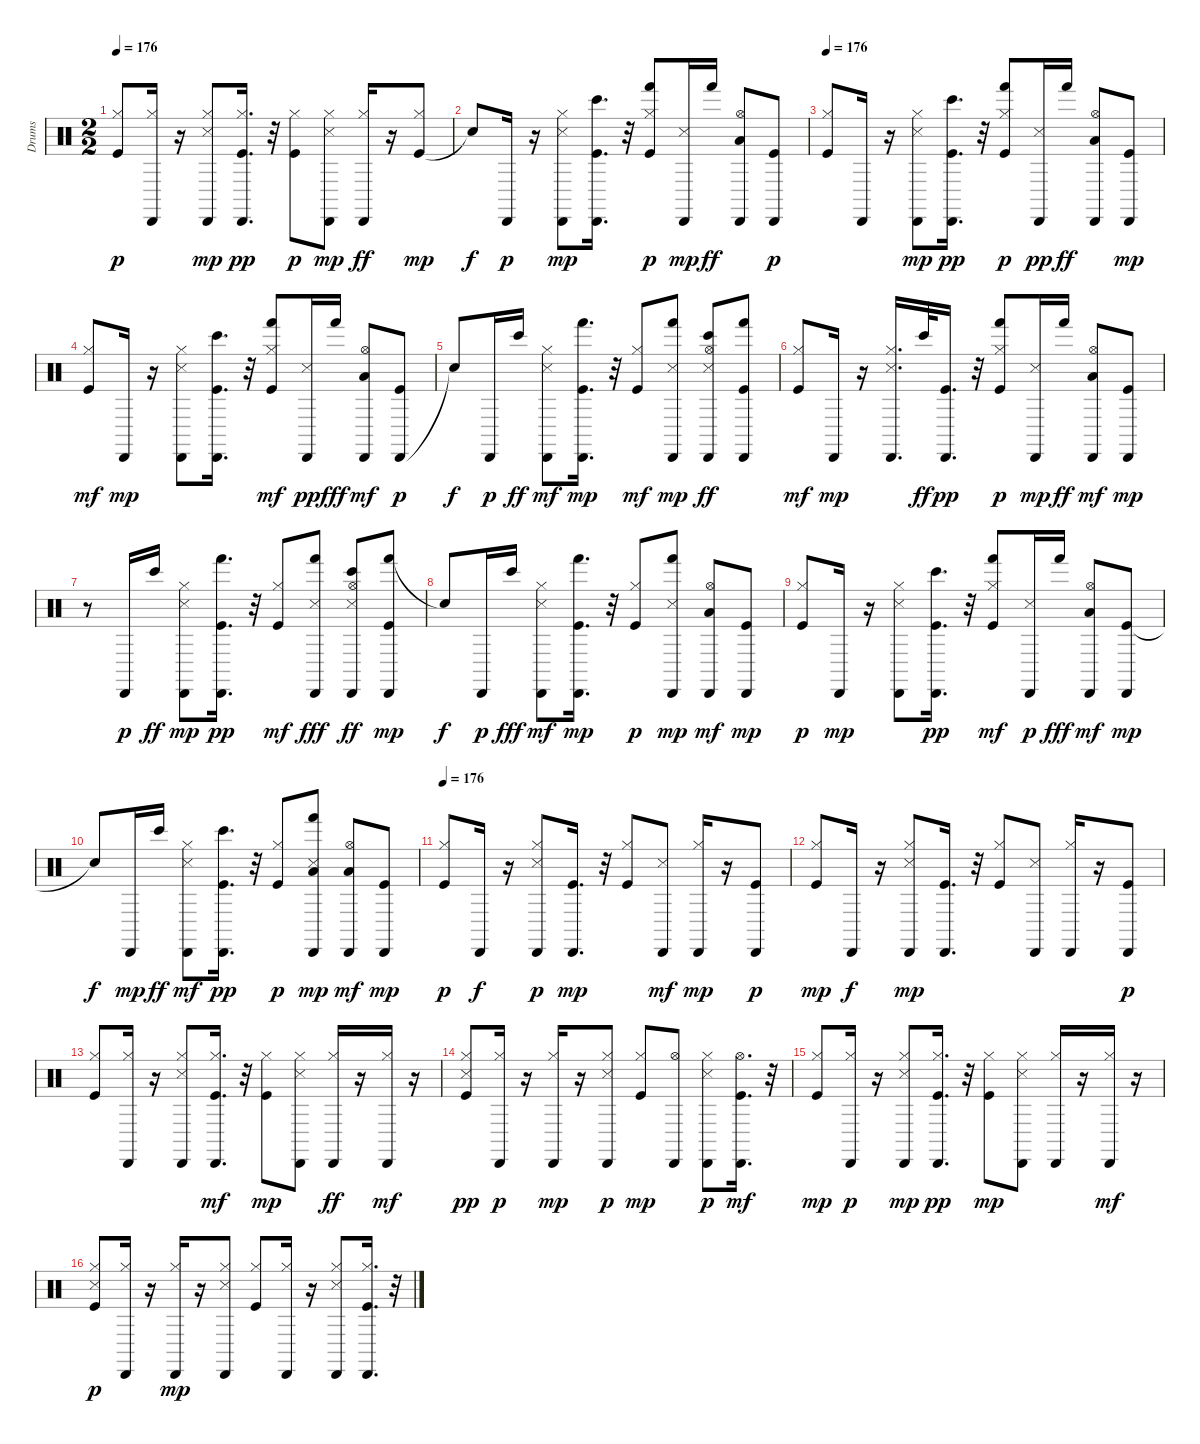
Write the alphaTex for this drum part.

\track ("Drums     " "Drums     ") {instrument percussion}
\staff {score}
\articulation defaults
\ts (2 2)
\tempo 176
\clef neutral
\ks c
("Hi-Hat (closed)" "Kick (hit)").8{dy p} ("Hi-Hat (closed)" "Cabasa (hit)").16 r.16 ("Hi-Hat (closed)" "Snare (side stick) 3" "Cabasa (hit)").8{dy mp} ("Hi-Hat (closed)" "Kick (hit)" "Cabasa (hit)").16{d dy pp} r.32 ("Hi-Hat (closed)" "Kick (hit)").8{dy p} ("Cabasa (hit)" "Hi-Hat (closed)" "Snare (side stick) 3").8{dy mp} ("Hi-Hat (closed)" "Cabasa (hit)").16{dy ff} r.16 ("Kick (hit)" "Hi-Hat (closed)").8{dy mp} |
"Snare (hit)"{t}.8{dy f} "Cabasa (hit)".16{dy p} r.16 ("Cabasa (hit)" "Hi-Hat (closed)" "Snare (side stick) 3").8{dy mp} ("Bongo High (hit)" "Kick (hit)" "Cabasa (hit)").16{d} r.32 ("Hand (hit)" "Hi-Hat (closed)" "Kick (hit)").8{dy p} ("Cabasa (hit)" "Snare (side stick) 3").16{dy mp} "Hand (hit)".16{dy ff} ("Low Floor Tom (hit)" "Cabasa (hit)" "Hi-Hat (open)").8 ("Cabasa (hit)" "Kick (hit)").8{dy p} |
\tempo 176
("Hi-Hat (closed)" "Kick (hit)").8 "Cabasa (hit)".16 r.16 ("Hi-Hat (closed)" "Cabasa (hit)" "Snare (side stick) 3").8{dy mp} ("Bongo High (hit)" "Cabasa (hit)" "Kick (hit)").16{d dy pp} r.32 ("Hand (hit)" "Hi-Hat (closed)" "Kick (hit)").8{dy p} ("Snare (side stick) 3" "Cabasa (hit)").16{dy pp} "Hand (hit)".16{dy ff} ("Cabasa (hit)" "Low Floor Tom (hit)" "Hi-Hat (open)").8 ("Kick (hit)" "Cabasa (hit)").8{dy mp} |
("Kick (hit)" "Hi-Hat (closed)").8{dy mf} "Cabasa (hit)".16{dy mp} r.16 ("Snare (side stick) 3" "Hi-Hat (closed)" "Cabasa (hit)").8 ("Bongo High (hit)" "Kick (hit)" "Cabasa (hit)").16{d} r.32 ("Hand (hit)" "Kick (hit)" "Hi-Hat (closed)").8{dy mf} ("Snare (side stick) 3" "Cabasa (hit)").16{dy pp} "Hand (hit)".16{dy fff} ("Hi-Hat (open)" "Low Floor Tom (hit)" "Cabasa (hit)").8{dy mf} ("Cabasa (hit)" "Kick (hit)").8{dy p} |
"Snare (hit)"{t}.8{dy f} "Cabasa (hit)".16{dy p} "Bongo High (hit)".16{dy ff} ("Snare (side stick) 3" "Hi-Hat (closed)" "Cabasa (hit)").8{dy mf} ("Hand (hit)" "Kick (hit)" "Cabasa (hit)").16{d dy mp} r.32 ("Kick (hit)" "Hi-Hat (closed)").8{dy mf} ("Hand (hit)" "Cabasa (hit)" "Snare (side stick) 3").8{dy mp} ("Cabasa (hit)" "Hi-Hat (open)" "Snare (side stick) 3" "Bongo High (hit)").8{dy ff} ("Kick (hit)" "Cabasa (hit)" "Hand (hit)").8 |
("Kick (hit)" "Hi-Hat (closed)").8{dy mf} "Cabasa (hit)".16{dy mp} r.16 ("Cabasa (hit)" "Hi-Hat (closed)" "Snare (side stick) 3").16{d} "Bongo High (hit)".32{dy ff} ("Cabasa (hit)" "Kick (hit)").16{d dy pp} r.32 ("Hand (hit)" "Hi-Hat (closed)" "Kick (hit)").8{dy p} ("Cabasa (hit)" "Snare (side stick) 3").16{dy mp} "Hand (hit)".16{dy ff} ("Low Floor Tom (hit)" "Hi-Hat (open)" "Cabasa (hit)").8{dy mf} ("Kick (hit)" "Cabasa (hit)").8{dy mp} |
r.8 "Cabasa (hit)".16{dy p} "Bongo High (hit)".16{dy ff} ("Snare (side stick) 3" "Hi-Hat (closed)" "Cabasa (hit)").8{dy mp} ("Hand (hit)" "Cabasa (hit)" "Kick (hit)").16{d dy pp} r.32 ("Kick (hit)" "Hi-Hat (closed)").8{dy mf} ("Cabasa (hit)" "Snare (side stick) 3" "Hand (hit)").8{dy fff} ("Cabasa (hit)" "Hi-Hat (open)" "Snare (side stick) 3" "Bongo High (hit)").8{dy ff} ("Hand (hit)" "Kick (hit)" "Cabasa (hit)").8{dy mp} |
"Snare (hit)"{t}.8{dy f} "Cabasa (hit)".16{dy p} "Bongo High (hit)".16{dy fff} ("Snare (side stick) 3" "Cabasa (hit)" "Hi-Hat (closed)").8{dy mf} ("Hand (hit)" "Kick (hit)" "Cabasa (hit)").16{d dy mp} r.32 ("Hi-Hat (closed)" "Kick (hit)").8{dy p} ("Cabasa (hit)" "Hand (hit)" "Snare (side stick) 3").8{dy mp} ("Low Floor Tom (hit)" "Cabasa (hit)" "Hi-Hat (open)").8{dy mf} ("Kick (hit)" "Cabasa (hit)").8{dy mp} |
("Hi-Hat (closed)" "Kick (hit)").8{dy p} "Cabasa (hit)".16{dy mp} r.16 ("Cabasa (hit)" "Hi-Hat (closed)" "Snare (side stick) 3").8 ("Bongo High (hit)" "Cabasa (hit)" "Kick (hit)").16{d dy pp} r.32 ("Hand (hit)" "Kick (hit)" "Hi-Hat (closed)").8{dy mf} ("Snare (side stick) 3" "Cabasa (hit)").16{dy p} "Hand (hit)".16{dy fff} ("Low Floor Tom (hit)" "Hi-Hat (open)" "Cabasa (hit)").8{dy mf} ("Kick (hit)" "Cabasa (hit)").8{dy mp} |
"Snare (hit)"{t}.8{dy f} "Cabasa (hit)".16{dy mp} "Bongo High (hit)".16{dy ff} ("Cabasa (hit)" "Snare (side stick) 3" "Hi-Hat (closed)").8{dy mf} ("Bongo High (hit)" "Cabasa (hit)" "Kick (hit)").16{d dy pp} r.32 ("Hi-Hat (closed)" "Kick (hit)").8{dy p} ("Cabasa (hit)" "Hand (hit)" "Low Tom (hit)" "Snare (side stick) 3").8{dy mp} ("Hi-Hat (open)" "Low Floor Tom (hit)" "Cabasa (hit)").8{dy mf} ("Kick (hit)" "Cabasa (hit)").8{dy mp} |
\tempo 176
("Hi-Hat (closed)" "Kick (hit)").8{dy p} "Cabasa (hit)".16{dy f} r.16 ("Snare (side stick) 3" "Cabasa (hit)" "Hi-Hat (closed)").8{dy p} ("Kick (hit)" "Cabasa (hit)").16{d dy mp} r.32 ("Kick (hit)" "Hi-Hat (closed)").8 ("Snare (side stick) 3" "Cabasa (hit)").8{dy mf} ("Cabasa (hit)" "Hi-Hat (closed)").16{dy mp} r.16 ("Cabasa (hit)" "Kick (hit)").8{dy p} |
("Kick (hit)" "Hi-Hat (closed)").8{dy mp} "Cabasa (hit)".16{dy f} r.16 ("Hi-Hat (closed)" "Snare (side stick) 3" "Cabasa (hit)").8{dy mp} ("Kick (hit)" "Cabasa (hit)").16{d} r.32 ("Kick (hit)" "Hi-Hat (closed)").8 ("Cabasa (hit)" "Snare (side stick) 3").8 ("Cabasa (hit)" "Hi-Hat (closed)").16 r.16 ("Kick (hit)" "Cabasa (hit)").8{dy p} |
("Hi-Hat (closed)" "Kick (hit)").8 ("Cabasa (hit)" "Hi-Hat (closed)").16 r.16 ("Snare (side stick) 3" "Cabasa (hit)" "Hi-Hat (closed)").8 ("Kick (hit)" "Cabasa (hit)" "Hi-Hat (closed)").16{d dy mf} r.32 ("Kick (hit)" "Hi-Hat (closed)").8{dy mp} ("Snare (side stick) 3" "Cabasa (hit)" "Hi-Hat (closed)").8 ("Hi-Hat (closed)" "Cabasa (hit)").16{dy ff} r.16 ("Hi-Hat (closed)" "Cabasa (hit)").16{dy mf} r.16 |
("Hi-Hat (closed)" "Snare (side stick) 3" "Kick (hit)").8{dy pp} ("Hi-Hat (closed)" "Cabasa (hit)").16{dy p} r.16 ("Cabasa (hit)" "Hi-Hat (closed)").16{dy mp} r.16 ("Snare (side stick) 3" "Hi-Hat (closed)" "Cabasa (hit)").8{dy p} ("Kick (hit)" "Hi-Hat (closed)").8{dy mp} ("Hi-Hat (open)" "Cabasa (hit)").8 ("Cabasa (hit)" "Snare (side stick) 3" "Hi-Hat (closed)").8{dy p} ("Hi-Hat (open)" "Kick (hit)" "Cabasa (hit)").16{d dy mf} r.32 |
("Kick (hit)" "Hi-Hat (closed)").8{dy mp} ("Hi-Hat (closed)" "Cabasa (hit)").16{dy p} r.16 ("Cabasa (hit)" "Hi-Hat (closed)" "Snare (side stick) 3").8{dy mp} ("Hi-Hat (closed)" "Cabasa (hit)" "Kick (hit)").16{d dy pp} r.32 ("Kick (hit)" "Hi-Hat (closed)").8{dy mp} ("Snare (side stick) 3" "Cabasa (hit)" "Hi-Hat (closed)").8 ("Hi-Hat (closed)" "Cabasa (hit)").16 r.16 ("Hi-Hat (closed)" "Cabasa (hit)").16{dy mf} r.16 |
("Snare (side stick) 3" "Kick (hit)" "Hi-Hat (closed)").8{dy p} ("Hi-Hat (closed)" "Cabasa (hit)").16 r.16 ("Hi-Hat (closed)" "Cabasa (hit)").16{dy mp} r.16 ("Snare (side stick) 3" "Cabasa (hit)" "Hi-Hat (closed)").8 ("Kick (hit)" "Hi-Hat (closed)").8 ("Cabasa (hit)" "Hi-Hat (closed)").16 r.16 ("Cabasa (hit)" "Hi-Hat (closed)" "Snare (side stick) 3").8 ("Cabasa (hit)" "Kick (hit)" "Hi-Hat (closed)").16{d} r.32
